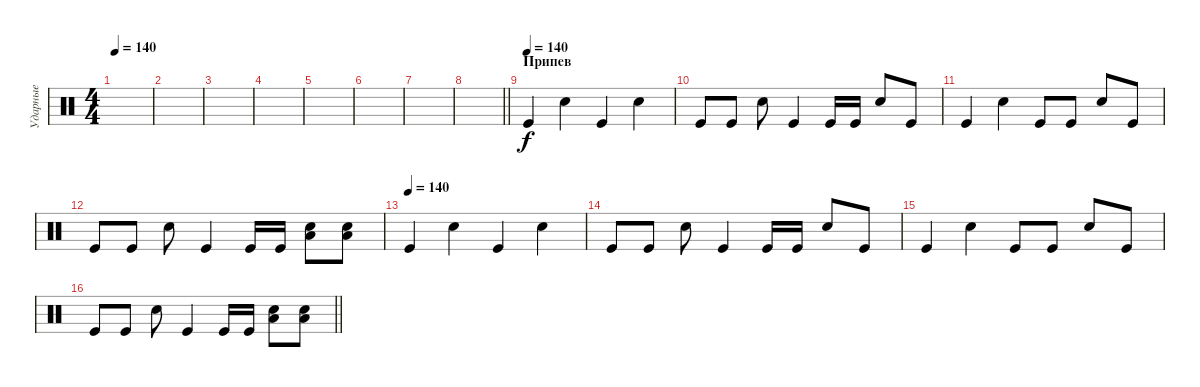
\track ("Ударные" "Ударные") {instrument percussion}
\staff {score}
\articulation defaults
\ts (4 4)
\tempo 140
\clef neutral
\ks c
|
|
|
|
|
|
|
\barLineRight lightlight
|
\section ("" "Припев")
\tempo (140)
"Kick (hit)".4 "Electric Snare (hit)".4 "Kick (hit)".4 "Electric Snare (hit)".4 |
"Kick (hit)".8 "Kick (hit)".8 "Electric Snare (hit)".8 "Kick (hit)".4 "Kick (hit)".16 "Kick (hit)".16 "Electric Snare (hit)".8 "Kick (hit)".8 |
"Kick (hit)".4 "Electric Snare (hit)".4 "Kick (hit)".8 "Kick (hit)".8 "Electric Snare (hit)".8 "Kick (hit)".8 |
"Kick (hit)".8 "Kick (hit)".8 "Electric Snare (hit)".8 "Kick (hit)".4 "Kick (hit)".16 "Kick (hit)".16 ("Low Floor Tom (hit)" "Electric Snare (hit)").8 ("Low Floor Tom (hit)" "Electric Snare (hit)").8 |
\tempo (140)
"Kick (hit)".4 "Electric Snare (hit)".4 "Kick (hit)".4 "Electric Snare (hit)".4 |
"Kick (hit)".8 "Kick (hit)".8 "Electric Snare (hit)".8 "Kick (hit)".4 "Kick (hit)".16 "Kick (hit)".16 "Electric Snare (hit)".8 "Kick (hit)".8 |
"Kick (hit)".4 "Electric Snare (hit)".4 "Kick (hit)".8 "Kick (hit)".8 "Electric Snare (hit)".8 "Kick (hit)".8 |
\barLineRight lightlight "Kick (hit)".8 "Kick (hit)".8 "Electric Snare (hit)".8 "Kick (hit)".4 "Kick (hit)".16 "Kick (hit)".16
("Low Floor Tom (hit)" "Electric Snare (hit)").8 ("Low Floor Tom (hit)" "Electric Snare (hit)").8
